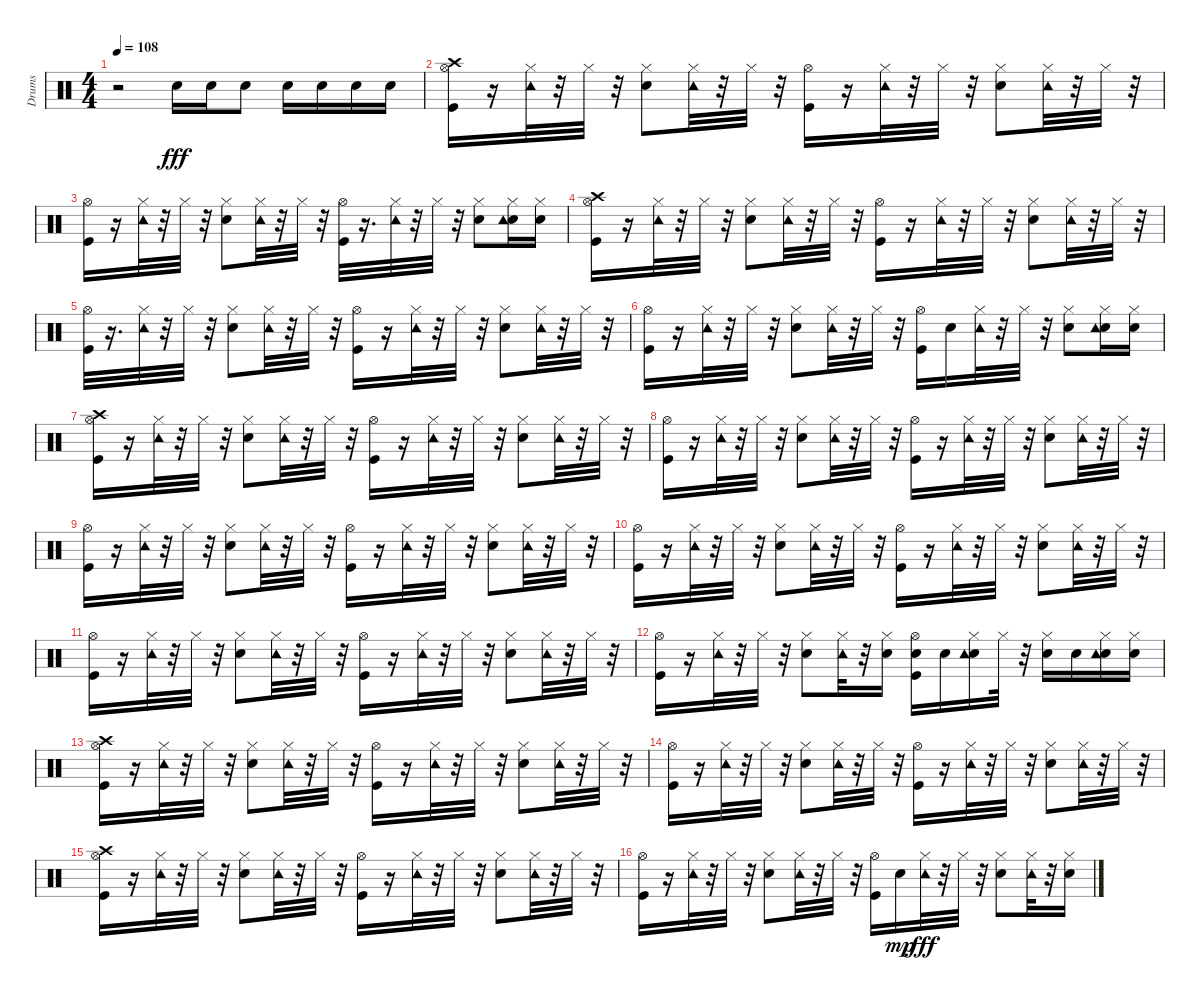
\track ("Drums               " "Drums     ") {instrument percussion}
\staff {score}
\articulation defaults
\ts (4 4)
\tempo 108
\clef neutral
\ks c
r.2{dy fff} "Snare (hit) 2".16 "Snare (hit) 2".16 "Snare (hit) 2".8 "Snare (hit) 2".16 "Snare (hit) 2".16 "Snare (hit) 2".16 "Snare (hit) 2".16 |
("Kick (hit)" "Hi-Hat (open)" "Crash high (hit)").16 r.16 ("Hi-Hat (closed)" "Tambourine (hit)").32 r.32 "Hi-Hat (closed)".32 r.32 ("Snare (hit) 2" "Hi-Hat (closed)").8 ("Hi-Hat (closed)" "Tambourine (hit)").32 r.32 "Hi-Hat (closed)".32 r.32 ("Kick (hit)" "Hi-Hat (open)").16 r.16 ("Hi-Hat (closed)" "Tambourine (hit)").32 r.32 "Hi-Hat (closed)".32 r.32 ("Snare (hit) 2" "Hi-Hat (closed)").8 ("Hi-Hat (closed)" "Tambourine (hit)").32 r.32 "Hi-Hat (closed)".32 r.32 |
("Kick (hit)" "Hi-Hat (open)").16 r.16 ("Hi-Hat (closed)" "Tambourine (hit)").32 r.32 "Hi-Hat (closed)".32 r.32 ("Snare (hit) 2" "Hi-Hat (closed)").8 ("Hi-Hat (closed)" "Tambourine (hit)").32 r.32 "Hi-Hat (closed)".32 r.32 ("Kick (hit)" "Hi-Hat (open)").32 r.16{d} ("Hi-Hat (closed)" "Tambourine (hit)").32 r.32 "Hi-Hat (closed)".32 r.32 ("Snare (hit) 2" "Hi-Hat (closed)").8 ("Snare (hit) 2" "Hi-Hat (closed)" "Tambourine (hit)").16 ("Snare (hit) 2" "Hi-Hat (closed)").16 |
("Kick (hit)" "Hi-Hat (open)" "Crash high (hit)").16 r.16 ("Hi-Hat (closed)" "Tambourine (hit)").32 r.32 "Hi-Hat (closed)".32 r.32 ("Snare (hit) 2" "Hi-Hat (closed)").8 ("Hi-Hat (closed)" "Tambourine (hit)").32 r.32 "Hi-Hat (closed)".32 r.32 ("Kick (hit)" "Hi-Hat (open)").16 r.16 ("Hi-Hat (closed)" "Tambourine (hit)").32 r.32 "Hi-Hat (closed)".32 r.32 ("Snare (hit) 2" "Hi-Hat (closed)").8 ("Hi-Hat (closed)" "Tambourine (hit)").32 r.32 "Hi-Hat (closed)".32 r.32 |
("Kick (hit)" "Hi-Hat (open)").32 r.16{d} ("Hi-Hat (closed)" "Tambourine (hit)").32 r.32 "Hi-Hat (closed)".32 r.32 ("Snare (hit) 2" "Hi-Hat (closed)").8 ("Hi-Hat (closed)" "Tambourine (hit)").32 r.32 "Hi-Hat (closed)".32 r.32 ("Kick (hit)" "Hi-Hat (open)").16 r.16 ("Hi-Hat (closed)" "Tambourine (hit)").32 r.32 "Hi-Hat (closed)".32 r.32 ("Snare (hit) 2" "Hi-Hat (closed)").8 ("Hi-Hat (closed)" "Tambourine (hit)").32 r.32 "Hi-Hat (closed)".32 r.32 |
("Kick (hit)" "Hi-Hat (open)").16 r.16 ("Hi-Hat (closed)" "Tambourine (hit)").32 r.32 "Hi-Hat (closed)".32 r.32 ("Snare (hit) 2" "Hi-Hat (closed)").8 ("Hi-Hat (closed)" "Tambourine (hit)").32 r.32 "Hi-Hat (closed)".32 r.32 ("Kick (hit)" "Hi-Hat (open)").16 "Snare (hit) 2".16 ("Hi-Hat (closed)" "Tambourine (hit)").32 r.32 "Hi-Hat (closed)".32 r.32 ("Snare (hit) 2" "Hi-Hat (closed)").8 ("Snare (hit) 2" "Hi-Hat (closed)" "Tambourine (hit)").16 ("Snare (hit) 2" "Hi-Hat (closed)").16 |
("Kick (hit)" "Hi-Hat (open)" "Crash high (hit)").16 r.16 ("Hi-Hat (closed)" "Tambourine (hit)").32 r.32 "Hi-Hat (closed)".32 r.32 ("Snare (hit) 2" "Hi-Hat (closed)").8 ("Hi-Hat (closed)" "Tambourine (hit)").32 r.32 "Hi-Hat (closed)".32 r.32 ("Kick (hit)" "Hi-Hat (open)").16 r.16 ("Hi-Hat (closed)" "Tambourine (hit)").32 r.32 "Hi-Hat (closed)".32 r.32 ("Snare (hit) 2" "Hi-Hat (closed)").8 ("Hi-Hat (closed)" "Tambourine (hit)").32 r.32 "Hi-Hat (closed)".32 r.32 |
("Kick (hit)" "Hi-Hat (open)").16 r.16 ("Hi-Hat (closed)" "Tambourine (hit)").32 r.32 "Hi-Hat (closed)".32 r.32 ("Snare (hit) 2" "Hi-Hat (closed)").8 ("Hi-Hat (closed)" "Tambourine (hit)").32 r.32 "Hi-Hat (closed)".32 r.32 ("Kick (hit)" "Hi-Hat (open)").16 r.16 ("Hi-Hat (closed)" "Tambourine (hit)").32 r.32 "Hi-Hat (closed)".32 r.32 ("Snare (hit) 2" "Hi-Hat (closed)").8 ("Hi-Hat (closed)" "Tambourine (hit)").32 r.32 "Hi-Hat (closed)".32 r.32 |
("Kick (hit)" "Hi-Hat (open)").16 r.16 ("Hi-Hat (closed)" "Tambourine (hit)").32 r.32 "Hi-Hat (closed)".32 r.32 ("Snare (hit) 2" "Hi-Hat (closed)").8 ("Hi-Hat (closed)" "Tambourine (hit)").32 r.32 "Hi-Hat (closed)".32 r.32 ("Kick (hit)" "Hi-Hat (open)").16 r.16 ("Hi-Hat (closed)" "Tambourine (hit)").32 r.32 "Hi-Hat (closed)".32 r.32 ("Snare (hit) 2" "Hi-Hat (closed)").8 ("Hi-Hat (closed)" "Tambourine (hit)").32 r.32 "Hi-Hat (closed)".32 r.32 |
("Kick (hit)" "Hi-Hat (open)").16 r.16 ("Hi-Hat (closed)" "Tambourine (hit)").32 r.32 "Hi-Hat (closed)".32 r.32 ("Snare (hit) 2" "Hi-Hat (closed)").8 ("Hi-Hat (closed)" "Tambourine (hit)").32 r.32 "Hi-Hat (closed)".32 r.32 ("Kick (hit)" "Hi-Hat (open)").16 r.16 ("Hi-Hat (closed)" "Tambourine (hit)").32 r.32 "Hi-Hat (closed)".32 r.32 ("Snare (hit) 2" "Hi-Hat (closed)").8 ("Hi-Hat (closed)" "Tambourine (hit)").32 r.32 "Hi-Hat (closed)".32 r.32 |
("Kick (hit)" "Hi-Hat (open)").16 r.16 ("Hi-Hat (closed)" "Tambourine (hit)").32 r.32 "Hi-Hat (closed)".32 r.32 ("Snare (hit) 2" "Hi-Hat (closed)").8 ("Hi-Hat (closed)" "Tambourine (hit)").32 r.32 "Hi-Hat (closed)".32 r.32 ("Kick (hit)" "Hi-Hat (open)").16 r.16 ("Hi-Hat (closed)" "Tambourine (hit)").32 r.32 "Hi-Hat (closed)".32 r.32 ("Snare (hit) 2" "Hi-Hat (closed)").8 ("Hi-Hat (closed)" "Tambourine (hit)").32 r.32 "Hi-Hat (closed)".32 r.32 |
("Kick (hit)" "Hi-Hat (open)").16 r.16 ("Hi-Hat (closed)" "Tambourine (hit)").32 r.32 "Hi-Hat (closed)".32 r.32 ("Snare (hit) 2" "Hi-Hat (closed)").8 ("Hi-Hat (closed)" "Tambourine (hit)").32 r.32 ("Snare (hit) 2" "Hi-Hat (closed)").16 ("Kick (hit)" "Snare (hit) 2" "Hi-Hat (open)").16 "Snare (hit) 2".16 ("Snare (hit) 2" "Hi-Hat (closed)" "Tambourine (hit)").16 "Hi-Hat (closed)".32 r.32 ("Snare (hit) 2" "Hi-Hat (closed)").16 "Snare (hit) 2".16 ("Snare (hit) 2" "Hi-Hat (closed)" "Tambourine (hit)").16 ("Snare (hit) 2" "Hi-Hat (closed)").16 |
("Kick (hit)" "Hi-Hat (open)" "Crash high (hit)").16 r.16 ("Hi-Hat (closed)" "Tambourine (hit)").32 r.32 "Hi-Hat (closed)".32 r.32 ("Snare (hit) 2" "Hi-Hat (closed)").8 ("Hi-Hat (closed)" "Tambourine (hit)").32 r.32 "Hi-Hat (closed)".32 r.32 ("Kick (hit)" "Hi-Hat (open)").16 r.16 ("Hi-Hat (closed)" "Tambourine (hit)").32 r.32 "Hi-Hat (closed)".32 r.32 ("Snare (hit) 2" "Hi-Hat (closed)").8 ("Hi-Hat (closed)" "Tambourine (hit)").32 r.32 "Hi-Hat (closed)".32 r.32 |
("Kick (hit)" "Hi-Hat (open)").16 r.16 ("Hi-Hat (closed)" "Tambourine (hit)").32 r.32 "Hi-Hat (closed)".32 r.32 ("Snare (hit) 2" "Hi-Hat (closed)").8 ("Hi-Hat (closed)" "Tambourine (hit)").32 r.32 "Hi-Hat (closed)".32 r.32 ("Kick (hit)" "Hi-Hat (open)").16 r.16 ("Hi-Hat (closed)" "Tambourine (hit)").32 r.32 "Hi-Hat (closed)".32 r.32 ("Snare (hit) 2" "Hi-Hat (closed)").8 ("Hi-Hat (closed)" "Tambourine (hit)").32 r.32 "Hi-Hat (closed)".32 r.32 |
("Kick (hit)" "Hi-Hat (open)" "Crash high (hit)").16 r.16 ("Hi-Hat (closed)" "Tambourine (hit)").32 r.32 "Hi-Hat (closed)".32 r.32 ("Snare (hit) 2" "Hi-Hat (closed)").8 ("Hi-Hat (closed)" "Tambourine (hit)").32 r.32 "Hi-Hat (closed)".32 r.32 ("Kick (hit)" "Hi-Hat (open)").16 r.16 ("Hi-Hat (closed)" "Tambourine (hit)").32 r.32 "Hi-Hat (closed)".32 r.32 ("Snare (hit) 2" "Hi-Hat (closed)").8 ("Hi-Hat (closed)" "Tambourine (hit)").32 r.32 "Hi-Hat (closed)".32 r.32 |
("Kick (hit)" "Hi-Hat (open)").16 r.16 ("Hi-Hat (closed)" "Tambourine (hit)").32 r.32 "Hi-Hat (closed)".32 r.32 ("Snare (hit) 2" "Hi-Hat (closed)").8 ("Hi-Hat (closed)" "Tambourine (hit)").32 r.32 "Hi-Hat (closed)".32 r.32 ("Kick (hit)" "Hi-Hat (open)").16 "Snare (hit) 2".16{dy mp} ("Hi-Hat (closed)" "Tambourine (hit)").32{dy fff} r.32 "Hi-Hat (closed)".32 r.32 ("Snare (hit) 2" "Hi-Hat (closed)").8 ("Hi-Hat (closed)" "Tambourine (hit)").32 r.32 ("Snare (hit) 2" "Hi-Hat (closed)").16
